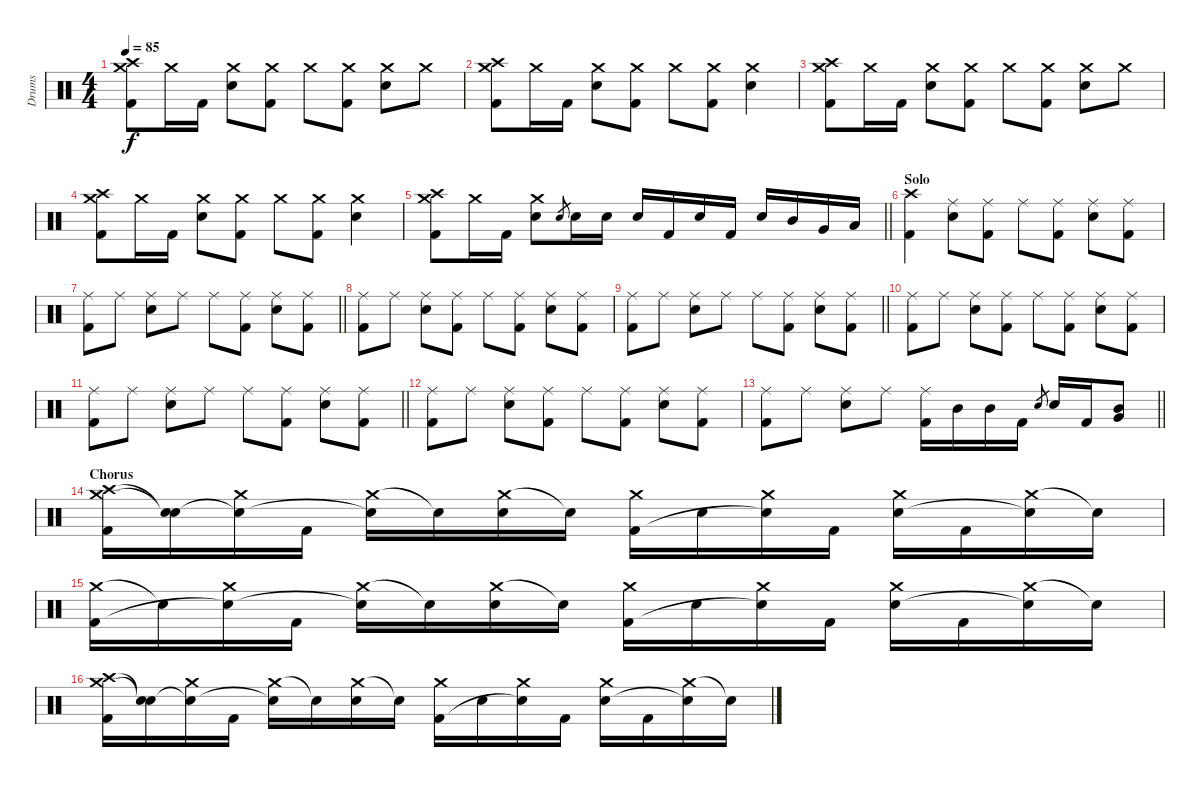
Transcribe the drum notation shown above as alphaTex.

\track ("Drums" "Drums") {instrument percussion}
\staff {score}
\articulation defaults
\ts (4 4)
\tempo 85
\clef neutral
\ks c
("Crash medium (hit)" "Crash high (hit)" "Kick (hit) 2").8{dy f} "Crash medium (hit)".16 "Kick (hit) 2".16 ("Crash medium (hit)" "Snare (hit) 2").8 ("Crash medium (hit)" "Kick (hit) 2").8 "Crash medium (hit)".8 ("Crash medium (hit)" "Kick (hit) 2").8 ("Crash medium (hit)" "Snare (hit) 2").8 "Crash medium (hit)".8 |
("Crash medium (hit)" "Crash high (hit)" "Kick (hit) 2").8 "Crash medium (hit)".16 "Kick (hit) 2".16 ("Crash medium (hit)" "Snare (hit) 2").8 ("Crash medium (hit)" "Kick (hit) 2").8 "Crash medium (hit)".8 ("Crash medium (hit)" "Kick (hit) 2").8 ("Crash medium (hit)" "Snare (hit) 2").4 |
("Crash medium (hit)" "Crash high (hit)" "Kick (hit) 2").8 "Crash medium (hit)".16 "Kick (hit) 2".16 ("Crash medium (hit)" "Snare (hit) 2").8 ("Crash medium (hit)" "Kick (hit) 2").8 "Crash medium (hit)".8 ("Crash medium (hit)" "Kick (hit) 2").8 ("Crash medium (hit)" "Snare (hit) 2").8 "Crash medium (hit)".8 |
("Crash medium (hit)" "Crash high (hit)" "Kick (hit) 2").8 "Crash medium (hit)".16 "Kick (hit) 2".16 ("Crash medium (hit)" "Snare (hit) 2").8 ("Crash medium (hit)" "Kick (hit) 2").8 "Crash medium (hit)".8 ("Crash medium (hit)" "Kick (hit) 2").8 ("Crash medium (hit)" "Snare (hit) 2").4 |
\barLineRight lightlight
("Crash medium (hit)" "Crash high (hit)" "Kick (hit) 2").8 "Crash medium (hit)".16 "Kick (hit) 2".16 ("Crash medium (hit)" "Snare (hit) 2").8 "Snare (hit) 2".8{gr} "Snare (hit) 2".16 "Snare (hit) 2".16 "Snare (hit) 2".16 "Kick (hit) 2".16 "Snare (hit) 2".16 "Kick (hit) 2".16 "Snare (hit) 2".16 "Mid Tom (hit)".16 "Very Low Tom (hit)".16 "Low Floor Tom (hit)".16 |
\section ("" "Solo")
("Crash high (hit)" "Kick (hit) 2").4 ("Ride (middle)" "Snare (hit) 2").8 ("Ride (middle)" "Kick (hit) 2").8 "Ride (middle)".8 ("Ride (middle)" "Kick (hit) 2").8 ("Ride (middle)" "Snare (hit) 2").8 ("Ride (middle)" "Kick (hit) 2").8 |
\barLineRight lightlight
("Ride (middle)" "Kick (hit) 2").8 "Ride (middle)".8 ("Ride (middle)" "Snare (hit) 2").8 "Ride (middle)".8 "Ride (middle)".8 ("Ride (middle)" "Kick (hit) 2").8 ("Ride (middle)" "Snare (hit) 2").8 ("Ride (middle)" "Kick (hit) 2").8 |
("Ride (middle)" "Kick (hit) 2").8 "Ride (middle)".8 ("Ride (middle)" "Snare (hit) 2").8 ("Ride (middle)" "Kick (hit) 2").8 "Ride (middle)".8 ("Ride (middle)" "Kick (hit) 2").8 ("Ride (middle)" "Snare (hit) 2").8 ("Ride (middle)" "Kick (hit) 2").8 |
\barLineRight lightlight
("Ride (middle)" "Kick (hit) 2").8 "Ride (middle)".8 ("Ride (middle)" "Snare (hit) 2").8 "Ride (middle)".8 "Ride (middle)".8 ("Ride (middle)" "Kick (hit) 2").8 ("Ride (middle)" "Snare (hit) 2").8 ("Ride (middle)" "Kick (hit) 2").8 |
("Ride (middle)" "Kick (hit) 2").8 "Ride (middle)".8 ("Ride (middle)" "Snare (hit) 2").8 ("Ride (middle)" "Kick (hit) 2").8 "Ride (middle)".8 ("Ride (middle)" "Kick (hit) 2").8 ("Ride (middle)" "Snare (hit) 2").8 ("Ride (middle)" "Kick (hit) 2").8 |
\barLineRight lightlight
("Ride (middle)" "Kick (hit) 2").8 "Ride (middle)".8 ("Ride (middle)" "Snare (hit) 2").8 "Ride (middle)".8 "Ride (middle)".8 ("Ride (middle)" "Kick (hit) 2").8 ("Ride (middle)" "Snare (hit) 2").8 ("Ride (middle)" "Kick (hit) 2").8 |
("Ride (middle)" "Kick (hit) 2").8 "Ride (middle)".8 ("Ride (middle)" "Snare (hit) 2").8 ("Ride (middle)" "Kick (hit) 2").8 "Ride (middle)".8 ("Ride (middle)" "Kick (hit) 2").8 ("Ride (middle)" "Snare (hit) 2").8 ("Ride (middle)" "Kick (hit) 2").8 |
\barLineRight lightlight
("Ride (middle)" "Kick (hit) 2").8 "Ride (middle)".8 ("Ride (middle)" "Snare (hit) 2").8 "Ride (middle)".8 ("Ride (middle)" "Kick (hit) 2").16 "Mid Tom (hit)".16 "Mid Tom (hit)".16 "Kick (hit) 2".16 "Snare (hit) 2".8{gr} "Snare (hit) 2".16 "Kick (hit) 2".16 ("Mid Tom (hit)" "Very Low Tom (hit)").8 |
\section ("" "Chorus")
("Crash high (hit)" "Crash medium (hit)" "Kick (hit) 2").16 ("Snare (hit)"{t} "Snare (hit)"{t}).16 ("Crash medium (hit)" "Snare (hit)"{t}).16 "Kick (hit) 2".16 ("Crash medium (hit)" "Snare (hit)"{t}).16 "Snare (hit)"{t}.16 ("Crash medium (hit)" "Snare (hit) 2").16 "Snare (hit)"{t}.16 ("Crash medium (hit)" "Kick (hit) 2").16 "Snare (hit) 2".16 ("Crash medium (hit)" "Snare (hit)"{t}).16 "Kick (hit) 2".16 ("Crash medium (hit)" "Snare (hit) 2").16 "Kick (hit) 2".16 ("Crash medium (hit)" "Snare (hit)"{t}).16 "Snare (hit)"{t}.16 |
("Crash medium (hit)" "Kick (hit) 2").16 "Snare (hit)"{t}.16 ("Crash medium (hit)" "Snare (hit)"{t}).16 "Kick (hit) 2".16 ("Crash medium (hit)" "Snare (hit)"{t}).16 "Snare (hit)"{t}.16 ("Crash medium (hit)" "Snare (hit) 2").16 "Snare (hit)"{t}.16 ("Crash medium (hit)" "Kick (hit) 2").16 "Snare (hit) 2".16 ("Crash medium (hit)" "Snare (hit)"{t}).16 "Kick (hit) 2".16 ("Crash medium (hit)" "Snare (hit) 2").16 "Kick (hit) 2".16 ("Crash medium (hit)" "Snare (hit)"{t}).16 "Snare (hit)"{t}.16 |
("Crash high (hit)" "Crash medium (hit)" "Kick (hit) 2").16 ("Snare (hit)"{t} "Snare (hit)"{t}).16 ("Crash medium (hit)" "Snare (hit)"{t}).16 "Kick (hit) 2".16 ("Crash medium (hit)" "Snare (hit)"{t}).16 "Snare (hit)"{t}.16 ("Crash medium (hit)" "Snare (hit) 2").16 "Snare (hit)"{t}.16 ("Crash medium (hit)" "Kick (hit) 2").16 "Snare (hit) 2".16 ("Crash medium (hit)" "Snare (hit)"{t}).16 "Kick (hit) 2".16 ("Crash medium (hit)" "Snare (hit) 2").16 "Kick (hit) 2".16 ("Crash medium (hit)" "Snare (hit)"{t}).16 "Snare (hit)"{t}.16
